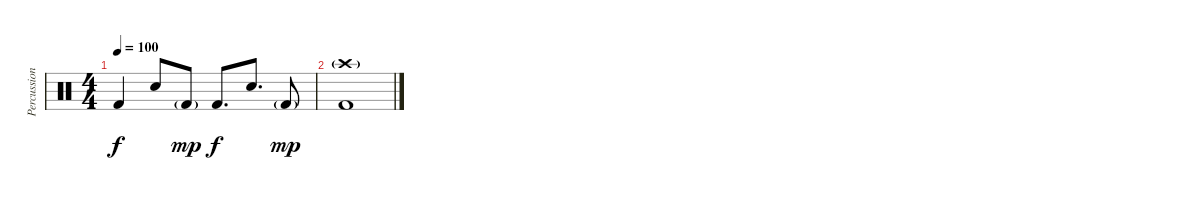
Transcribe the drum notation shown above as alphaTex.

\track ("Percussion" "Percussion") {instrument percussion}
\staff {score}
\articulation defaults
\ts (4 4)
\tempo 100
\clef neutral
\ks c "Kick (hit) 2".4{dy f} "Snare (hit) 2".8 "Kick (hit) 2"{g}.8{dy mp} "Kick (hit) 2".8{d dy f} "Snare (hit) 2".8{d} "Kick (hit) 2"{g}.8{dy mp}
|
("Crash high (hit)"{g} "Kick (hit) 2").1
